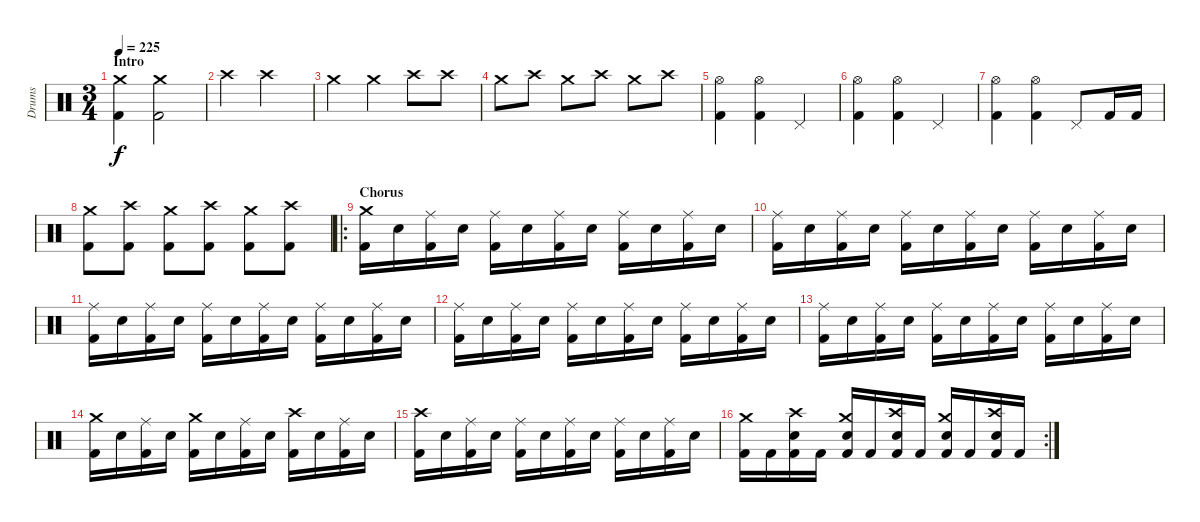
\track ("Drums" "Drums") {instrument percussion}
\staff {score}
\articulation defaults
\ts (3 4)
\section ("" "Intro")
\tempo 225
\clef neutral
\ks c
("Kick (hit) 2" "Crash medium (hit)").4{dy f} ("Kick (hit) 2" "Crash medium (hit)").2 |
"Crash high (hit)".4 "Crash high (hit)".2 |
"Crash medium (hit)".4 "Crash medium (hit)".4 "Crash high (hit)".8 "Crash high (hit)".8 |
"Crash medium (hit)".8 "Crash high (hit)".8 "Crash medium (hit)".8 "Crash high (hit)".8 "Crash medium (hit)".8 "Crash high (hit)".8 |
("Kick (hit) 2" "Hi-Hat (open)").4 ("Kick (hit) 2" "Hi-Hat (open)").4 "Pedal Hi-Hat (hit)".4 |
("Kick (hit) 2" "Hi-Hat (open)").4 ("Kick (hit) 2" "Hi-Hat (open)").4 "Pedal Hi-Hat (hit)".4 |
("Kick (hit) 2" "Hi-Hat (open)").4 ("Kick (hit) 2" "Hi-Hat (open)").4 "Pedal Hi-Hat (hit)".8 "Kick (hit) 2".16 "Kick (hit) 2".16 |
("Kick (hit) 2" "Crash medium (hit)").8 ("Kick (hit) 2" "Crash high (hit)").8 ("Kick (hit) 2" "Crash medium (hit)").8 ("Kick (hit) 2" "Crash high (hit)").8 ("Kick (hit) 2" "Crash medium (hit)").8 ("Kick (hit) 2" "Crash high (hit)").8 |
\ro
\section ("" "Chorus")
("Kick (hit) 2" "Crash medium (hit)").16 "Electric Snare (hit)".16 ("Kick (hit) 2" "Ride (middle)").16 "Electric Snare (hit)".16 ("Kick (hit) 2" "Ride (middle)").16 "Electric Snare (hit)".16 ("Kick (hit) 2" "Ride (middle)").16 "Electric Snare (hit)".16 ("Kick (hit) 2" "Ride (middle)").16 "Electric Snare (hit)".16 ("Kick (hit) 2" "Ride (middle)").16 "Electric Snare (hit)".16 |
("Kick (hit) 2" "Ride (middle)").16 "Electric Snare (hit)".16 ("Kick (hit) 2" "Ride (middle)").16 "Electric Snare (hit)".16 ("Kick (hit) 2" "Ride (middle)").16 "Electric Snare (hit)".16 ("Kick (hit) 2" "Ride (middle)").16 "Electric Snare (hit)".16 ("Kick (hit) 2" "Ride (middle)").16 "Electric Snare (hit)".16 ("Kick (hit) 2" "Ride (middle)").16 "Electric Snare (hit)".16 |
("Kick (hit) 2" "Ride (middle)").16 "Electric Snare (hit)".16 ("Kick (hit) 2" "Ride (middle)").16 "Electric Snare (hit)".16 ("Kick (hit) 2" "Ride (middle)").16 "Electric Snare (hit)".16 ("Kick (hit) 2" "Ride (middle)").16 "Electric Snare (hit)".16 ("Kick (hit) 2" "Ride (middle)").16 "Electric Snare (hit)".16 ("Kick (hit) 2" "Ride (middle)").16 "Electric Snare (hit)".16 |
("Kick (hit) 2" "Ride (middle)").16 "Electric Snare (hit)".16 ("Kick (hit) 2" "Ride (middle)").16 "Electric Snare (hit)".16 ("Kick (hit) 2" "Ride (middle)").16 "Electric Snare (hit)".16 ("Kick (hit) 2" "Ride (middle)").16 "Electric Snare (hit)".16 ("Kick (hit) 2" "Ride (middle)").16 "Electric Snare (hit)".16 ("Kick (hit) 2" "Ride (middle)").16 "Electric Snare (hit)".16 |
("Kick (hit) 2" "Ride (middle)").16 "Electric Snare (hit)".16 ("Kick (hit) 2" "Ride (middle)").16 "Electric Snare (hit)".16 ("Kick (hit) 2" "Ride (middle)").16 "Electric Snare (hit)".16 ("Kick (hit) 2" "Ride (middle)").16 "Electric Snare (hit)".16 ("Kick (hit) 2" "Ride (middle)").16 "Electric Snare (hit)".16 ("Kick (hit) 2" "Ride (middle)").16 "Electric Snare (hit)".16 |
("Kick (hit) 2" "Crash medium (hit)").16 "Electric Snare (hit)".16 ("Kick (hit) 2" "Ride (middle)").16 "Electric Snare (hit)".16 ("Kick (hit) 2" "Crash medium (hit)").16 "Electric Snare (hit)".16 ("Kick (hit) 2" "Ride (middle)").16 "Electric Snare (hit)".16 ("Kick (hit) 2" "Crash high (hit)").16 "Electric Snare (hit)".16 ("Kick (hit) 2" "Ride (middle)").16 "Electric Snare (hit)".16 |
("Kick (hit) 2" "Crash high (hit)").16 "Electric Snare (hit)".16 ("Kick (hit) 2" "Ride (middle)").16 "Electric Snare (hit)".16 ("Kick (hit) 2" "Ride (middle)").16 "Electric Snare (hit)".16 ("Kick (hit) 2" "Ride (middle)").16 "Electric Snare (hit)".16 ("Kick (hit) 2" "Ride (middle)").16 "Electric Snare (hit)".16 ("Kick (hit) 2" "Ride (middle)").16 "Electric Snare (hit)".16 |
\rc 2
("Kick (hit) 2" "Crash medium (hit)").16 "Kick (hit) 2".16 ("Kick (hit) 2" "Electric Snare (hit)" "Crash high (hit)").16 "Kick (hit) 2".16 ("Kick (hit) 2" "Electric Snare (hit)" "Crash medium (hit)").16 "Kick (hit) 2".16 ("Kick (hit) 2" "Electric Snare (hit)" "Crash high (hit)").16 "Kick (hit) 2".16 ("Kick (hit) 2" "Electric Snare (hit)" "Crash medium (hit)").16 "Kick (hit) 2".16 ("Kick (hit) 2" "Electric Snare (hit)" "Crash high (hit)").16 "Kick (hit) 2".16
